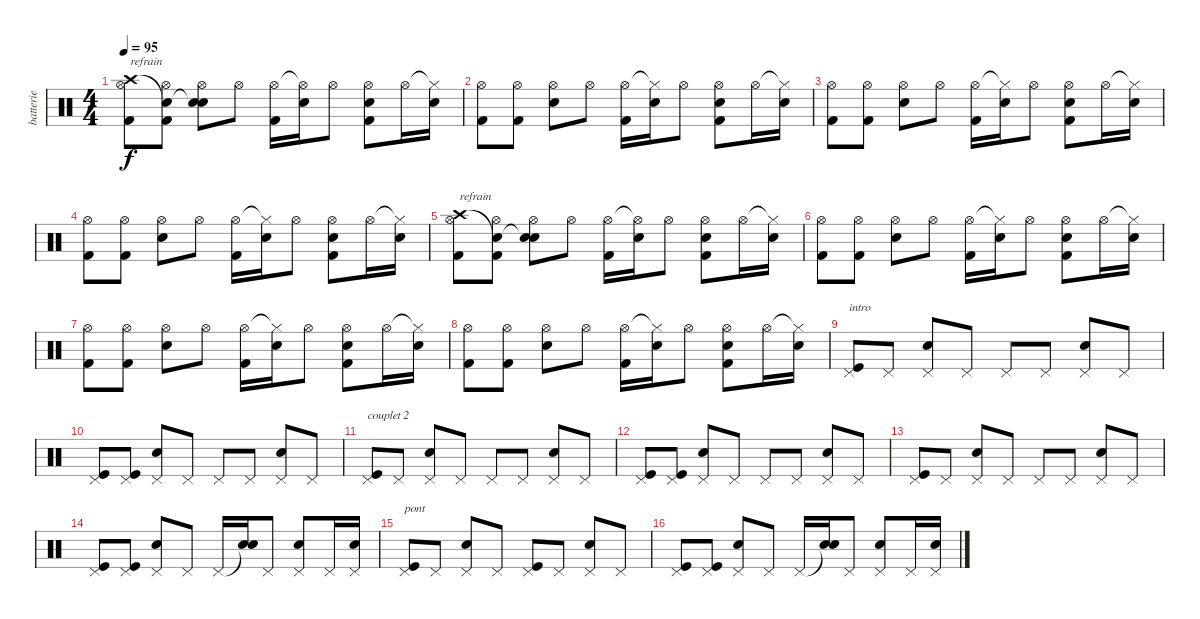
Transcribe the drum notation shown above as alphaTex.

\track ("batterie" "batterie") {instrument percussion}
\staff {score}
\articulation defaults
\ts (4 4)
\tempo 95
\clef neutral
\ks c
("Crash high (hit)" "Hi-Hat (open)" "Kick (hit) 2").8{txt "refrain" dy f} ("Snare (hit)"{t} "Hi-Hat (open)" "Kick (hit) 2").8 ("Snare (hit)"{t} "Hi-Hat (open)" "Snare (hit) 2").8 "Hi-Hat (open)".8 ("Hi-Hat (open)" "Kick (hit) 2").16 ("Hi-Hat (open)"{t} "Snare (hit) 2").16 "Hi-Hat (open)".8 ("Hi-Hat (open)" "Snare (hit) 2" "Kick (hit) 2").8 "Hi-Hat (open)".16 ("Hi-Hat (closed)"{t} "Snare (hit) 2").16 |
("Hi-Hat (open)" "Kick (hit) 2").8 ("Hi-Hat (open)" "Kick (hit) 2").8 ("Hi-Hat (open)" "Snare (hit) 2").8 "Hi-Hat (open)".8 ("Hi-Hat (open)" "Kick (hit) 2").16 ("Hi-Hat (closed)"{t} "Snare (hit) 2").16 "Hi-Hat (open)".8 ("Hi-Hat (open)" "Snare (hit) 2" "Kick (hit) 2").8 "Hi-Hat (open)".16 ("Hi-Hat (closed)"{t} "Snare (hit) 2").16 |
("Hi-Hat (open)" "Kick (hit) 2").8 ("Hi-Hat (open)" "Kick (hit) 2").8 ("Hi-Hat (open)" "Snare (hit) 2").8 "Hi-Hat (open)".8 ("Hi-Hat (open)" "Kick (hit) 2").16 ("Hi-Hat (closed)"{t} "Snare (hit) 2").16 "Hi-Hat (open)".8 ("Hi-Hat (open)" "Snare (hit) 2" "Kick (hit) 2").8 "Hi-Hat (open)".16 ("Hi-Hat (closed)"{t} "Snare (hit) 2").16 |
("Hi-Hat (open)" "Kick (hit) 2").8 ("Hi-Hat (open)" "Kick (hit) 2").8 ("Hi-Hat (open)" "Snare (hit) 2").8 "Hi-Hat (open)".8 ("Hi-Hat (open)" "Kick (hit) 2").16 ("Hi-Hat (closed)"{t} "Snare (hit) 2").16 "Hi-Hat (open)".8 ("Hi-Hat (open)" "Snare (hit) 2" "Kick (hit) 2").8 "Hi-Hat (open)".16 ("Hi-Hat (closed)"{t} "Snare (hit) 2").16 |
("Crash high (hit)" "Hi-Hat (open)" "Kick (hit) 2").8{txt "refrain"} ("Snare (hit)"{t} "Hi-Hat (open)" "Kick (hit) 2").8 ("Snare (hit)"{t} "Hi-Hat (open)" "Snare (hit) 2").8 "Hi-Hat (open)".8 ("Hi-Hat (open)" "Kick (hit) 2").16 ("Hi-Hat (open)"{t} "Snare (hit) 2").16 "Hi-Hat (open)".8 ("Hi-Hat (open)" "Snare (hit) 2" "Kick (hit) 2").8 "Hi-Hat (open)".16 ("Hi-Hat (closed)"{t} "Snare (hit) 2").16 |
("Hi-Hat (open)" "Kick (hit) 2").8 ("Hi-Hat (open)" "Kick (hit) 2").8 ("Hi-Hat (open)" "Snare (hit) 2").8 "Hi-Hat (open)".8 ("Hi-Hat (open)" "Kick (hit) 2").16 ("Hi-Hat (closed)"{t} "Snare (hit) 2").16 "Hi-Hat (open)".8 ("Hi-Hat (open)" "Snare (hit) 2" "Kick (hit) 2").8 "Hi-Hat (open)".16 ("Hi-Hat (closed)"{t} "Snare (hit) 2").16 |
("Hi-Hat (open)" "Kick (hit) 2").8 ("Hi-Hat (open)" "Kick (hit) 2").8 ("Hi-Hat (open)" "Snare (hit) 2").8 "Hi-Hat (open)".8 ("Hi-Hat (open)" "Kick (hit) 2").16 ("Hi-Hat (closed)"{t} "Snare (hit) 2").16 "Hi-Hat (open)".8 ("Hi-Hat (open)" "Snare (hit) 2" "Kick (hit) 2").8 "Hi-Hat (open)".16 ("Hi-Hat (closed)"{t} "Snare (hit) 2").16 |
("Hi-Hat (open)" "Kick (hit) 2").8 ("Hi-Hat (open)" "Kick (hit) 2").8 ("Hi-Hat (open)" "Snare (hit) 2").8 "Hi-Hat (open)".8 ("Hi-Hat (open)" "Kick (hit) 2").16 ("Hi-Hat (closed)"{t} "Snare (hit) 2").16 "Hi-Hat (open)".8 ("Hi-Hat (open)" "Snare (hit) 2" "Kick (hit) 2").8 "Hi-Hat (open)".16 ("Hi-Hat (closed)"{t} "Snare (hit) 2").16 |
("Pedal Hi-Hat (hit)" "Kick (hit)").8{txt "intro"} "Pedal Hi-Hat (hit)".8 ("Pedal Hi-Hat (hit)" "Electric Snare (hit)").8 "Pedal Hi-Hat (hit)".8 "Pedal Hi-Hat (hit)".8 "Pedal Hi-Hat (hit)".8 ("Pedal Hi-Hat (hit)" "Electric Snare (hit)").8 "Pedal Hi-Hat (hit)".8 |
("Pedal Hi-Hat (hit)" "Kick (hit)").8 ("Pedal Hi-Hat (hit)" "Kick (hit)").8 ("Pedal Hi-Hat (hit)" "Electric Snare (hit)").8 "Pedal Hi-Hat (hit)".8 "Pedal Hi-Hat (hit)".8 "Pedal Hi-Hat (hit)".8 ("Pedal Hi-Hat (hit)" "Electric Snare (hit)").8 "Pedal Hi-Hat (hit)".8 |
("Pedal Hi-Hat (hit)" "Kick (hit)").8{txt "couplet 2"} "Pedal Hi-Hat (hit)".8 ("Pedal Hi-Hat (hit)" "Electric Snare (hit)").8 "Pedal Hi-Hat (hit)".8 "Pedal Hi-Hat (hit)".8 "Pedal Hi-Hat (hit)".8 ("Pedal Hi-Hat (hit)" "Electric Snare (hit)").8 "Pedal Hi-Hat (hit)".8 |
("Pedal Hi-Hat (hit)" "Kick (hit)").8 ("Pedal Hi-Hat (hit)" "Kick (hit)").8 ("Pedal Hi-Hat (hit)" "Electric Snare (hit)").8 "Pedal Hi-Hat (hit)".8 "Pedal Hi-Hat (hit)".8 "Pedal Hi-Hat (hit)".8 ("Pedal Hi-Hat (hit)" "Electric Snare (hit)").8 "Pedal Hi-Hat (hit)".8 |
("Pedal Hi-Hat (hit)" "Kick (hit)").8 "Pedal Hi-Hat (hit)".8 ("Pedal Hi-Hat (hit)" "Electric Snare (hit)").8 "Pedal Hi-Hat (hit)".8 "Pedal Hi-Hat (hit)".8 "Pedal Hi-Hat (hit)".8 ("Pedal Hi-Hat (hit)" "Electric Snare (hit)").8 "Pedal Hi-Hat (hit)".8 |
("Pedal Hi-Hat (hit)" "Kick (hit)").8 ("Pedal Hi-Hat (hit)" "Kick (hit)").8 ("Pedal Hi-Hat (hit)" "Electric Snare (hit)").8 "Pedal Hi-Hat (hit)".8 "Pedal Hi-Hat (hit)".16 ("Snare (hit)"{t} "Electric Snare (hit)").16 "Pedal Hi-Hat (hit)".8 ("Pedal Hi-Hat (hit)" "Electric Snare (hit)").8 "Pedal Hi-Hat (hit)".16 ("Pedal Hi-Hat (hit)" "Electric Snare (hit)").16 |
("Pedal Hi-Hat (hit)" "Kick (hit)").8{txt "pont"} "Pedal Hi-Hat (hit)".8 ("Pedal Hi-Hat (hit)" "Electric Snare (hit)").8 "Pedal Hi-Hat (hit)".8 ("Pedal Hi-Hat (hit)" "Kick (hit)").8 "Pedal Hi-Hat (hit)".8 ("Pedal Hi-Hat (hit)" "Electric Snare (hit)").8 "Pedal Hi-Hat (hit)".8 |
("Pedal Hi-Hat (hit)" "Kick (hit)").8 ("Pedal Hi-Hat (hit)" "Kick (hit)").8 ("Pedal Hi-Hat (hit)" "Electric Snare (hit)").8 "Pedal Hi-Hat (hit)".8 "Pedal Hi-Hat (hit)".16 ("Snare (hit)"{t} "Electric Snare (hit)").16 "Pedal Hi-Hat (hit)".8 ("Pedal Hi-Hat (hit)" "Electric Snare (hit)").8 "Pedal Hi-Hat (hit)".16 ("Pedal Hi-Hat (hit)" "Electric Snare (hit)").16
